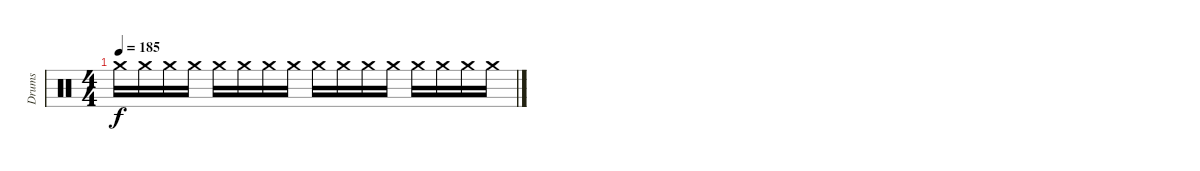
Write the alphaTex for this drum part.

\track ("Drums" "Drums") {instrument percussion}
\staff {score}
\articulation defaults
\ts (4 4)
\tempo 185
\clef neutral
\ks c "Crash medium (hit)".16{dy f} "Crash medium (hit)".16 "Crash medium (hit)".16 "Crash medium (hit)".16 "Crash medium (hit)".16 "Crash medium (hit)".16 "Crash medium (hit)".16 "Crash medium (hit)".16 "Crash medium (hit)".16 "Crash medium (hit)".16 "Crash medium (hit)".16 "Crash medium (hit)".16 "Crash medium (hit)".16 "Crash medium (hit)".16 "Crash medium (hit)".16 "Crash medium (hit)".16
